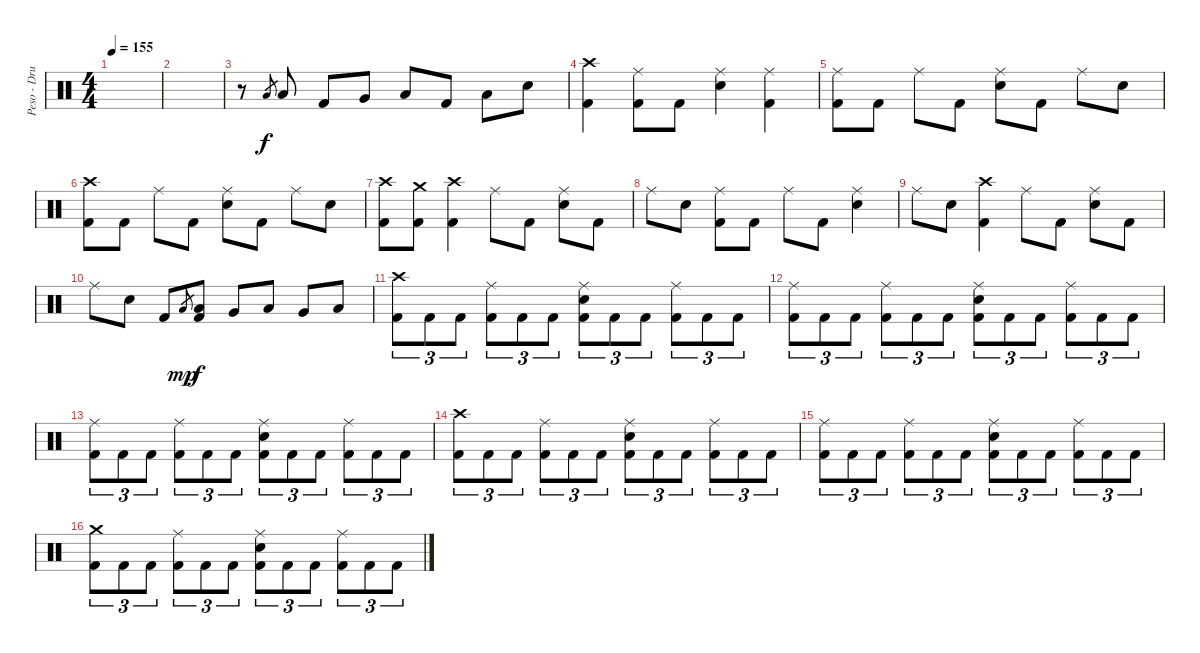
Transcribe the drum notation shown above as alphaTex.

\track ("Peso - Drums" "Peso - Dru") {instrument percussion}
\staff {score}
\articulation defaults
\ts (4 4)
\tempo 155
\clef neutral
\ks c
|
|
r.8 "Low Tom (hit)".8{gr dy f} "Low Tom (hit)".8 "Kick (hit) 2".8 "Very Low Tom (hit)".8 "Low Tom (hit)".8 "Kick (hit) 2".8 "Low Floor Tom (hit)".8 "Electric Snare (hit)".8 |
("Crash high (hit)" "Kick (hit) 2").4 ("Ride (middle)" "Kick (hit) 2").8 "Kick (hit) 2".8 ("Ride (middle)" "Electric Snare (hit)").4 ("Ride (middle)" "Kick (hit) 2").4 |
("Ride (middle)" "Kick (hit) 2").8 "Kick (hit) 2".8 "Ride (middle)".8 "Kick (hit) 2".8 ("Ride (middle)" "Electric Snare (hit)").8 "Kick (hit) 2".8 "Ride (middle)".8 "Electric Snare (hit)".8 |
("Crash high (hit)" "Kick (hit) 2").8 "Kick (hit) 2".8 "Ride (middle)".8 "Kick (hit) 2".8 ("Ride (middle)" "Electric Snare (hit)").8 "Kick (hit) 2".8 "Ride (middle)".8 "Electric Snare (hit)".8 |
("Crash high (hit)" "Kick (hit) 2").8 ("Crash medium (hit)" "Kick (hit) 2").8 ("Crash high (hit)" "Kick (hit) 2").4 "Ride (middle)".8 "Kick (hit) 2".8 ("Ride (middle)" "Electric Snare (hit)").8 "Kick (hit) 2".8 |
"Ride (middle)".8 "Electric Snare (hit)".8 ("Ride (middle)" "Kick (hit) 2").8 "Kick (hit) 2".8 "Ride (middle)".8 "Kick (hit) 2".8 ("Ride (middle)" "Electric Snare (hit)").4 |
"Ride (middle)".8 "Electric Snare (hit)".8 ("Crash high (hit)" "Kick (hit) 2").4 "Ride (middle)".8 "Kick (hit) 2".8 ("Ride (middle)" "Electric Snare (hit)").8 "Kick (hit) 2".8 |
"Ride (middle)".8 "Electric Snare (hit)".8 "Kick (hit) 2".8 "Low Tom (hit)".8{gr dy mp} ("Low Tom (hit)" "Kick (hit) 2").8{dy f} "Very Low Tom (hit)".8 "Low Floor Tom (hit)".8 "Very Low Tom (hit)".8 "Low Tom (hit)".8 |
("Crash high (hit)" "Kick (hit) 2").8{tu (3 2)} "Kick (hit) 2".8{tu (3 2)} "Kick (hit) 2".8{tu (3 2)} ("Ride (middle)" "Kick (hit) 2").8{tu (3 2)} "Kick (hit) 2".8{tu (3 2)} "Kick (hit) 2".8{tu (3 2)} ("Ride (middle)" "Electric Snare (hit)" "Kick (hit) 2").8{tu (3 2)} "Kick (hit) 2".8{tu (3 2)} "Kick (hit) 2".8{tu (3 2)} ("Ride (middle)" "Kick (hit) 2").8{tu (3 2)} "Kick (hit) 2".8{tu (3 2)} "Kick (hit) 2".8{tu (3 2)} |
("Ride (middle)" "Kick (hit) 2").8{tu (3 2)} "Kick (hit) 2".8{tu (3 2)} "Kick (hit) 2".8{tu (3 2)} ("Ride (middle)" "Kick (hit) 2").8{tu (3 2)} "Kick (hit) 2".8{tu (3 2)} "Kick (hit) 2".8{tu (3 2)} ("Ride (middle)" "Electric Snare (hit)" "Kick (hit) 2").8{tu (3 2)} "Kick (hit) 2".8{tu (3 2)} "Kick (hit) 2".8{tu (3 2)} ("Ride (middle)" "Kick (hit) 2").8{tu (3 2)} "Kick (hit) 2".8{tu (3 2)} "Kick (hit) 2".8{tu (3 2)} |
("Ride (middle)" "Kick (hit) 2").8{tu (3 2)} "Kick (hit) 2".8{tu (3 2)} "Kick (hit) 2".8{tu (3 2)} ("Ride (middle)" "Kick (hit) 2").8{tu (3 2)} "Kick (hit) 2".8{tu (3 2)} "Kick (hit) 2".8{tu (3 2)} ("Ride (middle)" "Electric Snare (hit)" "Kick (hit) 2").8{tu (3 2)} "Kick (hit) 2".8{tu (3 2)} "Kick (hit) 2".8{tu (3 2)} ("Ride (middle)" "Kick (hit) 2").8{tu (3 2)} "Kick (hit) 2".8{tu (3 2)} "Kick (hit) 2".8{tu (3 2)} |
("Crash high (hit)" "Kick (hit) 2").8{tu (3 2)} "Kick (hit) 2".8{tu (3 2)} "Kick (hit) 2".8{tu (3 2)} ("Ride (middle)" "Kick (hit) 2").8{tu (3 2)} "Kick (hit) 2".8{tu (3 2)} "Kick (hit) 2".8{tu (3 2)} ("Ride (middle)" "Electric Snare (hit)" "Kick (hit) 2").8{tu (3 2)} "Kick (hit) 2".8{tu (3 2)} "Kick (hit) 2".8{tu (3 2)} ("Ride (middle)" "Kick (hit) 2").8{tu (3 2)} "Kick (hit) 2".8{tu (3 2)} "Kick (hit) 2".8{tu (3 2)} |
("Ride (middle)" "Kick (hit) 2").8{tu (3 2)} "Kick (hit) 2".8{tu (3 2)} "Kick (hit) 2".8{tu (3 2)} ("Ride (middle)" "Kick (hit) 2").8{tu (3 2)} "Kick (hit) 2".8{tu (3 2)} "Kick (hit) 2".8{tu (3 2)} ("Ride (middle)" "Electric Snare (hit)" "Kick (hit) 2").8{tu (3 2)} "Kick (hit) 2".8{tu (3 2)} "Kick (hit) 2".8{tu (3 2)} ("Ride (middle)" "Kick (hit) 2").8{tu (3 2)} "Kick (hit) 2".8{tu (3 2)} "Kick (hit) 2".8{tu (3 2)} |
("Crash medium (hit)" "Kick (hit) 2").8{tu (3 2)} "Kick (hit) 2".8{tu (3 2)} "Kick (hit) 2".8{tu (3 2)} ("Ride (middle)" "Kick (hit) 2").8{tu (3 2)} "Kick (hit) 2".8{tu (3 2)} "Kick (hit) 2".8{tu (3 2)} ("Ride (middle)" "Electric Snare (hit)" "Kick (hit) 2").8{tu (3 2)} "Kick (hit) 2".8{tu (3 2)} "Kick (hit) 2".8{tu (3 2)} ("Ride (middle)" "Kick (hit) 2").8{tu (3 2)} "Kick (hit) 2".8{tu (3 2)} "Kick (hit) 2".8{tu (3 2)}
